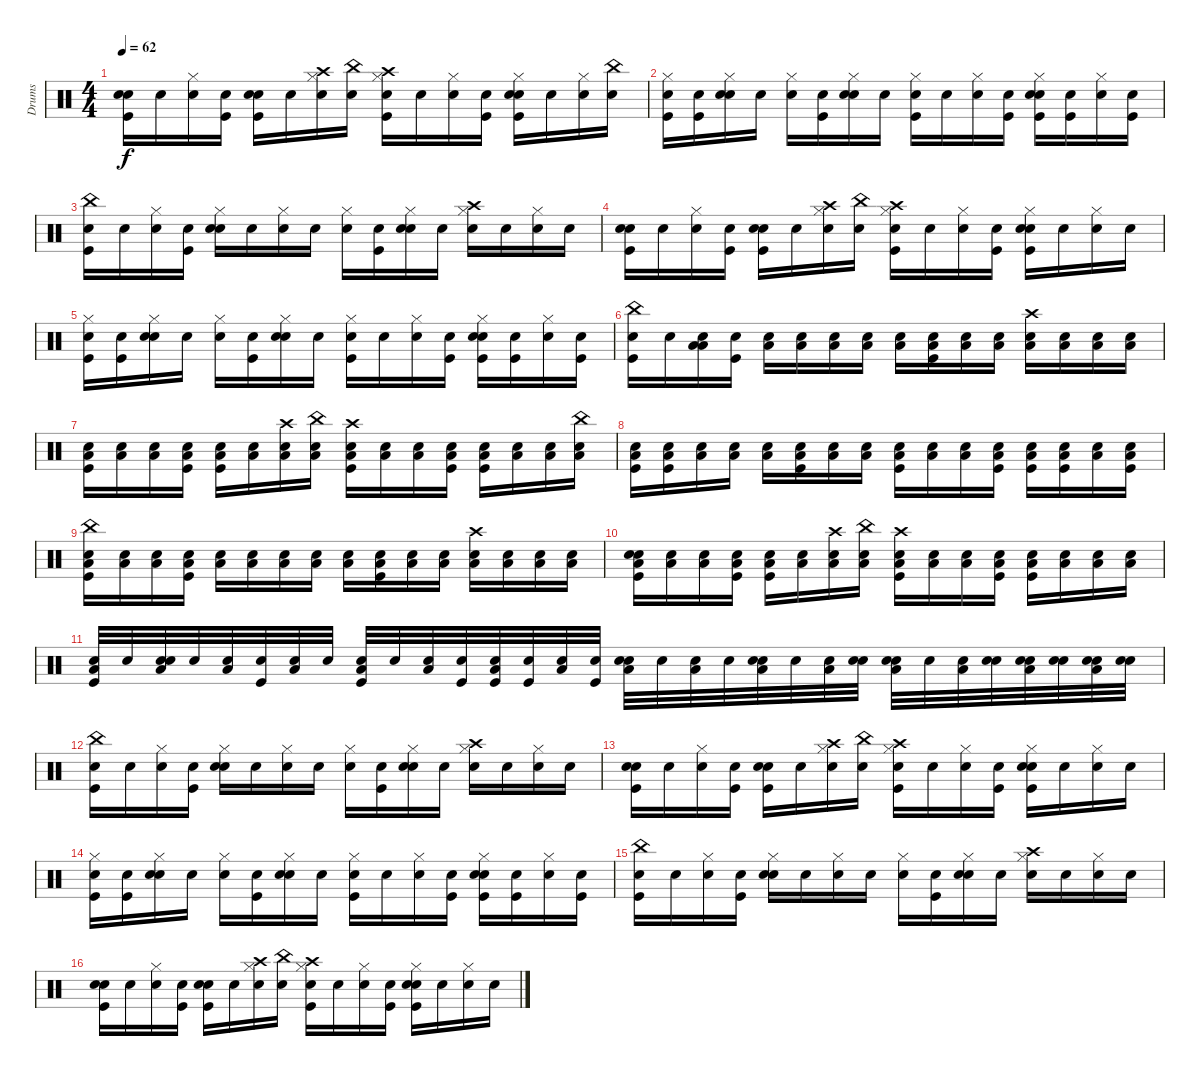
\track ("Drums" "Drums") {instrument percussion}
\staff {score}
\articulation defaults
\ts (4 4)
\tempo 62
\clef neutral
\ks c
("Snare (hit)" "Snare (hit) 2" "Kick (hit)").16{dy f} "Snare (hit)".16 ("Snare (hit)" "Hi-Hat (closed)").16 ("Snare (hit)" "Kick (hit)").16 ("Snare (hit)" "Snare (hit) 2" "Kick (hit)").16 "Snare (hit)".16 ("Snare (hit)" "Crash high (hit)" "Hi-Hat (closed)").16 ("Snare (hit)" "China (hit)").16 ("Snare (hit)" "Crash high (hit)" "Kick (hit)" "Hi-Hat (closed)").16 "Snare (hit)".16 ("Snare (hit)" "Hi-Hat (closed)").16 ("Snare (hit)" "Kick (hit)").16 ("Snare (hit)" "Snare (hit) 2" "Kick (hit)" "Hi-Hat (closed)").16 "Snare (hit)".16 ("Snare (hit)" "Hi-Hat (closed)").16 ("Snare (hit)" "China (hit)").16 |
("Snare (hit)" "Kick (hit)" "Hi-Hat (closed)").16 ("Snare (hit)" "Kick (hit)").16 ("Snare (hit)" "Snare (hit) 2" "Hi-Hat (closed)").16 "Snare (hit)".16 ("Snare (hit)" "Hi-Hat (closed)").16 ("Snare (hit)" "Kick (hit)").16 ("Snare (hit)" "Snare (hit) 2" "Hi-Hat (closed)").16 "Snare (hit)".16 ("Snare (hit)" "Kick (hit)" "Hi-Hat (closed)").16 "Snare (hit)".16 ("Snare (hit)" "Hi-Hat (closed)").16 ("Snare (hit)" "Kick (hit)").16 ("Snare (hit)" "Snare (hit) 2" "Kick (hit)" "Hi-Hat (closed)").16 ("Snare (hit)" "Kick (hit)").16 ("Snare (hit)" "Hi-Hat (closed)").16 ("Snare (hit)" "Kick (hit)").16 |
("Snare (hit)" "China (hit)" "Kick (hit)").16 "Snare (hit)".16 ("Snare (hit)" "Hi-Hat (closed)").16 ("Snare (hit)" "Kick (hit)").16 ("Snare (hit)" "Snare (hit) 2" "Hi-Hat (closed)").16 "Snare (hit)".16 ("Snare (hit)" "Hi-Hat (closed)").16 "Snare (hit)".16 ("Snare (hit)" "Hi-Hat (closed)").16 ("Snare (hit)" "Kick (hit)").16 ("Snare (hit)" "Snare (hit) 2" "Hi-Hat (closed)").16 "Snare (hit)".16 ("Snare (hit)" "Crash high (hit)" "Hi-Hat (closed)").16 "Snare (hit)".16 ("Snare (hit)" "Hi-Hat (closed)").16 "Snare (hit)".16 |
("Snare (hit)" "Snare (hit) 2" "Kick (hit)").16 "Snare (hit)".16 ("Snare (hit)" "Hi-Hat (closed)").16 ("Snare (hit)" "Kick (hit)").16 ("Snare (hit)" "Snare (hit) 2" "Kick (hit)").16 "Snare (hit)".16 ("Snare (hit)" "Crash high (hit)" "Hi-Hat (closed)").16 ("Snare (hit)" "China (hit)").16 ("Snare (hit)" "Crash high (hit)" "Kick (hit)" "Hi-Hat (closed)").16 "Snare (hit)".16 ("Snare (hit)" "Hi-Hat (closed)").16 ("Snare (hit)" "Kick (hit)").16 ("Snare (hit)" "Snare (hit) 2" "Kick (hit)" "Hi-Hat (closed)").16 "Snare (hit)".16 ("Snare (hit)" "Hi-Hat (closed)").16 "Snare (hit)".16 |
("Snare (hit)" "Kick (hit)" "Hi-Hat (closed)").16 ("Snare (hit)" "Kick (hit)").16 ("Snare (hit)" "Snare (hit) 2" "Hi-Hat (closed)").16 "Snare (hit)".16 ("Snare (hit)" "Hi-Hat (closed)").16 ("Snare (hit)" "Kick (hit)").16 ("Snare (hit)" "Snare (hit) 2" "Hi-Hat (closed)").16 "Snare (hit)".16 ("Snare (hit)" "Kick (hit)" "Hi-Hat (closed)").16 "Snare (hit)".16 ("Snare (hit)" "Hi-Hat (closed)").16 ("Snare (hit)" "Kick (hit)").16 ("Snare (hit)" "Snare (hit) 2" "Kick (hit)" "Hi-Hat (closed)").16 ("Snare (hit)" "Kick (hit)").16 ("Snare (hit)" "Hi-Hat (closed)").16 ("Snare (hit)" "Kick (hit)").16 |
("Snare (hit)" "China (hit)" "Kick (hit)").16 "Snare (hit)".16 ("Snare (hit)" "Low Floor Tom (hit)" "Low Floor Tom (hit)").16 ("Snare (hit)" "Kick (hit)").16 ("Snare (hit)" "Low Floor Tom (hit)").16 ("Snare (hit)" "Low Floor Tom (hit)").16 ("Snare (hit)" "Low Floor Tom (hit)").16 ("Snare (hit)" "Low Floor Tom (hit)").16 ("Snare (hit)" "Low Floor Tom (hit)").16 ("Snare (hit)" "Low Floor Tom (hit)" "Kick (hit)").16 ("Snare (hit)" "Low Floor Tom (hit)").16 ("Snare (hit)" "Low Floor Tom (hit)").16 ("Snare (hit)" "Crash high (hit)" "Low Floor Tom (hit)").16 ("Snare (hit)" "Low Floor Tom (hit)").16 ("Snare (hit)" "Low Floor Tom (hit)").16 ("Snare (hit)" "Low Floor Tom (hit)").16 |
("Snare (hit)" "Kick (hit)" "Low Floor Tom (hit)").16 ("Snare (hit)" "Low Floor Tom (hit)").16 ("Snare (hit)" "Low Floor Tom (hit)").16 ("Snare (hit)" "Kick (hit)" "Low Floor Tom (hit)").16 ("Snare (hit)" "Kick (hit)" "Low Floor Tom (hit)").16 ("Snare (hit)" "Low Floor Tom (hit)").16 ("Snare (hit)" "Crash high (hit)" "Low Floor Tom (hit)").16 ("Snare (hit)" "China (hit)" "Low Floor Tom (hit)").16 ("Snare (hit)" "Crash high (hit)" "Kick (hit)" "Low Floor Tom (hit)").16 ("Snare (hit)" "Low Floor Tom (hit)").16 ("Snare (hit)" "Low Floor Tom (hit)").16 ("Snare (hit)" "Kick (hit)" "Low Floor Tom (hit)").16 ("Snare (hit)" "Kick (hit)" "Low Floor Tom (hit)").16 ("Snare (hit)" "Low Floor Tom (hit)").16 ("Snare (hit)" "Low Floor Tom (hit)").16 ("Snare (hit)" "China (hit)" "Low Floor Tom (hit)").16 |
("Snare (hit)" "Kick (hit)" "Low Floor Tom (hit)").16 ("Snare (hit)" "Kick (hit)" "Low Floor Tom (hit)").16 ("Snare (hit)" "Low Floor Tom (hit)").16 ("Snare (hit)" "Low Floor Tom (hit)").16 ("Snare (hit)" "Low Floor Tom (hit)").16 ("Snare (hit)" "Kick (hit)" "Low Floor Tom (hit)").16 ("Snare (hit)" "Low Floor Tom (hit)").16 ("Snare (hit)" "Low Floor Tom (hit)").16 ("Snare (hit)" "Kick (hit)" "Low Floor Tom (hit)").16 ("Snare (hit)" "Low Floor Tom (hit)").16 ("Snare (hit)" "Low Floor Tom (hit)").16 ("Snare (hit)" "Kick (hit)" "Low Floor Tom (hit)").16 ("Snare (hit)" "Kick (hit)" "Low Floor Tom (hit)").16 ("Snare (hit)" "Kick (hit)" "Low Floor Tom (hit)").16 ("Snare (hit)" "Low Floor Tom (hit)").16 ("Snare (hit)" "Kick (hit)" "Low Floor Tom (hit)").16 |
("Snare (hit)" "China (hit)" "Kick (hit)" "Low Floor Tom (hit)").16 ("Snare (hit)" "Low Floor Tom (hit)").16 ("Snare (hit)" "Low Floor Tom (hit)").16 ("Snare (hit)" "Kick (hit)" "Low Floor Tom (hit)").16 ("Snare (hit)" "Low Floor Tom (hit)").16 ("Snare (hit)" "Low Floor Tom (hit)").16 ("Snare (hit)" "Low Floor Tom (hit)").16 ("Snare (hit)" "Low Floor Tom (hit)").16 ("Snare (hit)" "Low Floor Tom (hit)").16 ("Snare (hit)" "Kick (hit)" "Low Floor Tom (hit)").16 ("Snare (hit)" "Low Floor Tom (hit)").16 ("Snare (hit)" "Low Floor Tom (hit)").16 ("Snare (hit)" "Crash high (hit)" "Low Floor Tom (hit)").16 ("Snare (hit)" "Low Floor Tom (hit)").16 ("Snare (hit)" "Low Floor Tom (hit)").16 ("Snare (hit)" "Low Floor Tom (hit)").16 |
("Snare (hit)" "Snare (hit) 2" "Kick (hit)" "Low Floor Tom (hit)").16 ("Snare (hit)" "Low Floor Tom (hit)").16 ("Snare (hit)" "Low Floor Tom (hit)").16 ("Snare (hit)" "Kick (hit)" "Low Floor Tom (hit)").16 ("Snare (hit)" "Kick (hit)" "Low Floor Tom (hit)").16 ("Snare (hit)" "Low Floor Tom (hit)").16 ("Snare (hit)" "Crash high (hit)" "Low Floor Tom (hit)").16 ("Snare (hit)" "China (hit)" "Low Floor Tom (hit)").16 ("Snare (hit)" "Crash high (hit)" "Kick (hit)" "Low Floor Tom (hit)").16 ("Snare (hit)" "Low Floor Tom (hit)").16 ("Snare (hit)" "Low Floor Tom (hit)").16 ("Snare (hit)" "Kick (hit)" "Low Floor Tom (hit)").16 ("Snare (hit)" "Kick (hit)" "Low Floor Tom (hit)").16 ("Snare (hit)" "Low Floor Tom (hit)").16 ("Snare (hit)" "Low Floor Tom (hit)").16 ("Snare (hit)" "Low Floor Tom (hit)").16 |
("Snare (hit)" "Kick (hit)" "Low Floor Tom (hit)").32 "Snare (hit)".32 ("Snare (hit)" "Snare (hit) 2" "Low Floor Tom (hit)").32 "Snare (hit)".32 ("Snare (hit)" "Low Floor Tom (hit)").32 ("Snare (hit)" "Kick (hit)").32 ("Snare (hit)" "Low Floor Tom (hit)").32 "Snare (hit)".32 ("Snare (hit)" "Kick (hit)" "Low Floor Tom (hit)").32 "Snare (hit)".32 ("Snare (hit)" "Low Floor Tom (hit)").32 ("Snare (hit)" "Kick (hit)").32 ("Snare (hit)" "Kick (hit)" "Low Floor Tom (hit)").32 ("Snare (hit)" "Kick (hit)").32 ("Snare (hit)" "Low Floor Tom (hit)").32 ("Snare (hit)" "Kick (hit)").32 ("Snare (hit)" "Snare (hit) 2" "Low Floor Tom (hit)").32 "Snare (hit)".32 ("Snare (hit)" "Low Floor Tom (hit)").32 "Snare (hit)".32 ("Snare (hit)" "Snare (hit) 2" "Low Floor Tom (hit)").32 "Snare (hit)".32 ("Snare (hit)" "Low Floor Tom (hit)").32 ("Snare (hit)" "Snare (hit) 2").32 ("Snare (hit)" "Snare (hit) 2" "Low Floor Tom (hit)").32 "Snare (hit)".32 ("Snare (hit)" "Low Floor Tom (hit)").32 ("Snare (hit)" "Snare (hit) 2").32 ("Snare (hit)" "Snare (hit) 2" "Low Floor Tom (hit)").32 ("Snare (hit)" "Snare (hit) 2").32 ("Snare (hit)" "Snare (hit) 2" "Low Floor Tom (hit)").32 ("Snare (hit)" "Snare (hit) 2").32 |
("Snare (hit)" "China (hit)" "Kick (hit)").16 "Snare (hit)".16 ("Snare (hit)" "Hi-Hat (closed)").16 ("Snare (hit)" "Kick (hit)").16 ("Snare (hit)" "Snare (hit) 2" "Hi-Hat (closed)").16 "Snare (hit)".16 ("Snare (hit)" "Hi-Hat (closed)").16 "Snare (hit)".16 ("Snare (hit)" "Hi-Hat (closed)").16 ("Snare (hit)" "Kick (hit)").16 ("Snare (hit)" "Snare (hit) 2" "Hi-Hat (closed)").16 "Snare (hit)".16 ("Snare (hit)" "Crash high (hit)" "Hi-Hat (closed)").16 "Snare (hit)".16 ("Snare (hit)" "Hi-Hat (closed)").16 "Snare (hit)".16 |
("Snare (hit)" "Snare (hit) 2" "Kick (hit)").16 "Snare (hit)".16 ("Snare (hit)" "Hi-Hat (closed)").16 ("Snare (hit)" "Kick (hit)").16 ("Snare (hit)" "Snare (hit) 2" "Kick (hit)").16 "Snare (hit)".16 ("Snare (hit)" "Crash high (hit)" "Hi-Hat (closed)").16 ("Snare (hit)" "China (hit)").16 ("Snare (hit)" "Crash high (hit)" "Kick (hit)" "Hi-Hat (closed)").16 "Snare (hit)".16 ("Snare (hit)" "Hi-Hat (closed)").16 ("Snare (hit)" "Kick (hit)").16 ("Snare (hit)" "Snare (hit) 2" "Kick (hit)" "Hi-Hat (closed)").16 "Snare (hit)".16 ("Snare (hit)" "Hi-Hat (closed)").16 "Snare (hit)".16 |
("Snare (hit)" "Kick (hit)" "Hi-Hat (closed)").16 ("Snare (hit)" "Kick (hit)").16 ("Snare (hit)" "Snare (hit) 2" "Hi-Hat (closed)").16 "Snare (hit)".16 ("Snare (hit)" "Hi-Hat (closed)").16 ("Snare (hit)" "Kick (hit)").16 ("Snare (hit)" "Snare (hit) 2" "Hi-Hat (closed)").16 "Snare (hit)".16 ("Snare (hit)" "Kick (hit)" "Hi-Hat (closed)").16 "Snare (hit)".16 ("Snare (hit)" "Hi-Hat (closed)").16 ("Snare (hit)" "Kick (hit)").16 ("Snare (hit)" "Snare (hit) 2" "Kick (hit)" "Hi-Hat (closed)").16 ("Snare (hit)" "Kick (hit)").16 ("Snare (hit)" "Hi-Hat (closed)").16 ("Snare (hit)" "Kick (hit)").16 |
("Snare (hit)" "China (hit)" "Kick (hit)").16 "Snare (hit)".16 ("Snare (hit)" "Hi-Hat (closed)").16 ("Snare (hit)" "Kick (hit)").16 ("Snare (hit)" "Snare (hit) 2" "Hi-Hat (closed)").16 "Snare (hit)".16 ("Snare (hit)" "Hi-Hat (closed)").16 "Snare (hit)".16 ("Snare (hit)" "Hi-Hat (closed)").16 ("Snare (hit)" "Kick (hit)").16 ("Snare (hit)" "Snare (hit) 2" "Hi-Hat (closed)").16 "Snare (hit)".16 ("Snare (hit)" "Crash high (hit)" "Hi-Hat (closed)").16 "Snare (hit)".16 ("Snare (hit)" "Hi-Hat (closed)").16 "Snare (hit)".16 |
("Snare (hit)" "Snare (hit) 2" "Kick (hit)").16 "Snare (hit)".16 ("Snare (hit)" "Hi-Hat (closed)").16 ("Snare (hit)" "Kick (hit)").16 ("Snare (hit)" "Snare (hit) 2" "Kick (hit)").16 "Snare (hit)".16 ("Snare (hit)" "Crash high (hit)" "Hi-Hat (closed)").16 ("Snare (hit)" "China (hit)").16 ("Snare (hit)" "Crash high (hit)" "Kick (hit)" "Hi-Hat (closed)").16 "Snare (hit)".16 ("Snare (hit)" "Hi-Hat (closed)").16 ("Snare (hit)" "Kick (hit)").16 ("Snare (hit)" "Snare (hit) 2" "Kick (hit)" "Hi-Hat (closed)").16 "Snare (hit)".16 ("Snare (hit)" "Hi-Hat (closed)").16 "Snare (hit)".16
